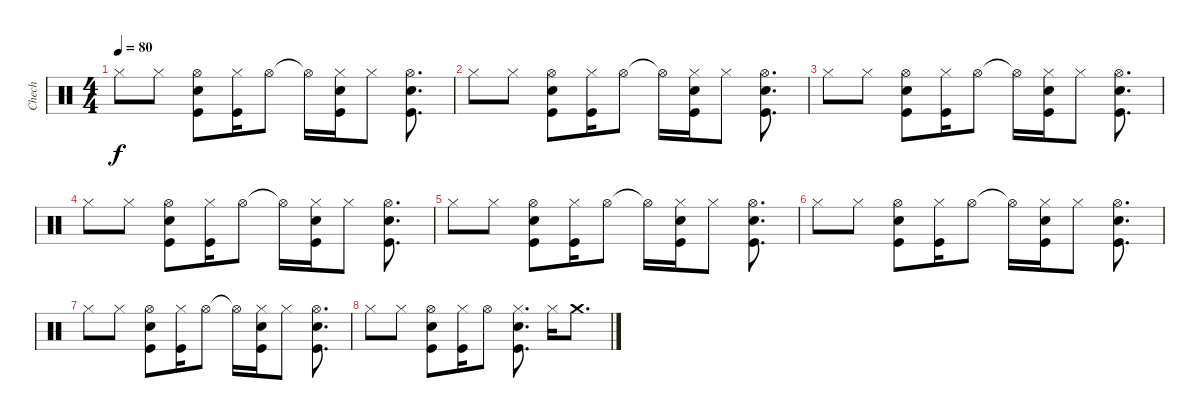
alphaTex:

\track ("Chech" "Chech") {instrument percussion}
\staff {score}
\articulation defaults
\ts (4 4)
\tempo 80
\clef neutral
\ks c "Hi-Hat (closed)".8{dy f} "Hi-Hat (closed)".8
("Hi-Hat (open)" "Electric Snare (hit)" "Kick (hit)").8 ("Hi-Hat (closed)" "Kick (hit)").16 "Hi-Hat (open)".8 "Hi-Hat (open)"{t}.16 ("Hi-Hat (closed)" "Electric Snare (hit)" "Kick (hit)").16 "Hi-Hat (closed)".8 ("Hi-Hat (open)" "Electric Snare (hit)" "Kick (hit)").8{d} |
"Hi-Hat (closed)".8 "Hi-Hat (closed)".8 ("Hi-Hat (open)" "Electric Snare (hit)" "Kick (hit)").8 ("Hi-Hat (closed)" "Kick (hit)").16 "Hi-Hat (open)".8 "Hi-Hat (open)"{t}.16 ("Hi-Hat (closed)" "Electric Snare (hit)" "Kick (hit)").16 "Hi-Hat (closed)".8 ("Hi-Hat (open)" "Electric Snare (hit)" "Kick (hit)").8{d} |
"Hi-Hat (closed)".8 "Hi-Hat (closed)".8 ("Hi-Hat (open)" "Electric Snare (hit)" "Kick (hit)").8 ("Hi-Hat (closed)" "Kick (hit)").16 "Hi-Hat (open)".8 "Hi-Hat (open)"{t}.16 ("Hi-Hat (closed)" "Electric Snare (hit)" "Kick (hit)").16 "Hi-Hat (closed)".8 ("Hi-Hat (open)" "Electric Snare (hit)" "Kick (hit)").8{d} |
"Hi-Hat (closed)".8 "Hi-Hat (closed)".8 ("Hi-Hat (open)" "Electric Snare (hit)" "Kick (hit)").8 ("Hi-Hat (closed)" "Kick (hit)").16 "Hi-Hat (open)".8 "Hi-Hat (open)"{t}.16 ("Hi-Hat (closed)" "Electric Snare (hit)" "Kick (hit)").16 "Hi-Hat (closed)".8 ("Hi-Hat (open)" "Electric Snare (hit)" "Kick (hit)").8{d} |
"Hi-Hat (closed)".8 "Hi-Hat (closed)".8 ("Hi-Hat (open)" "Electric Snare (hit)" "Kick (hit)").8 ("Hi-Hat (closed)" "Kick (hit)").16 "Hi-Hat (open)".8 "Hi-Hat (open)"{t}.16 ("Hi-Hat (closed)" "Electric Snare (hit)" "Kick (hit)").16 "Hi-Hat (closed)".8 ("Hi-Hat (open)" "Electric Snare (hit)" "Kick (hit)").8{d} |
"Hi-Hat (closed)".8 "Hi-Hat (closed)".8 ("Hi-Hat (open)" "Electric Snare (hit)" "Kick (hit)").8 ("Hi-Hat (closed)" "Kick (hit)").16 "Hi-Hat (open)".8 "Hi-Hat (open)"{t}.16 ("Hi-Hat (closed)" "Electric Snare (hit)" "Kick (hit)").16 "Hi-Hat (closed)".8 ("Hi-Hat (open)" "Electric Snare (hit)" "Kick (hit)").8{d} |
"Hi-Hat (closed)".8 "Hi-Hat (closed)".8 ("Hi-Hat (open)" "Electric Snare (hit)" "Kick (hit)").8 ("Hi-Hat (closed)" "Kick (hit)").16 "Hi-Hat (open)".8 "Hi-Hat (open)"{t}.16 ("Hi-Hat (closed)" "Electric Snare (hit)" "Kick (hit)").16 "Hi-Hat (closed)".8 ("Hi-Hat (open)" "Electric Snare (hit)" "Kick (hit)").8{d} |
"Hi-Hat (closed)".8 "Hi-Hat (closed)".8 ("Hi-Hat (open)" "Electric Snare (hit)" "Kick (hit)").8 ("Hi-Hat (closed)" "Kick (hit)").16 "Hi-Hat (open)".8 ("Hi-Hat (closed)" "Electric Snare (hit)" "Kick (hit)").8{d} "Hi-Hat (closed)".16 "Crash medium (hit)".8{d}
